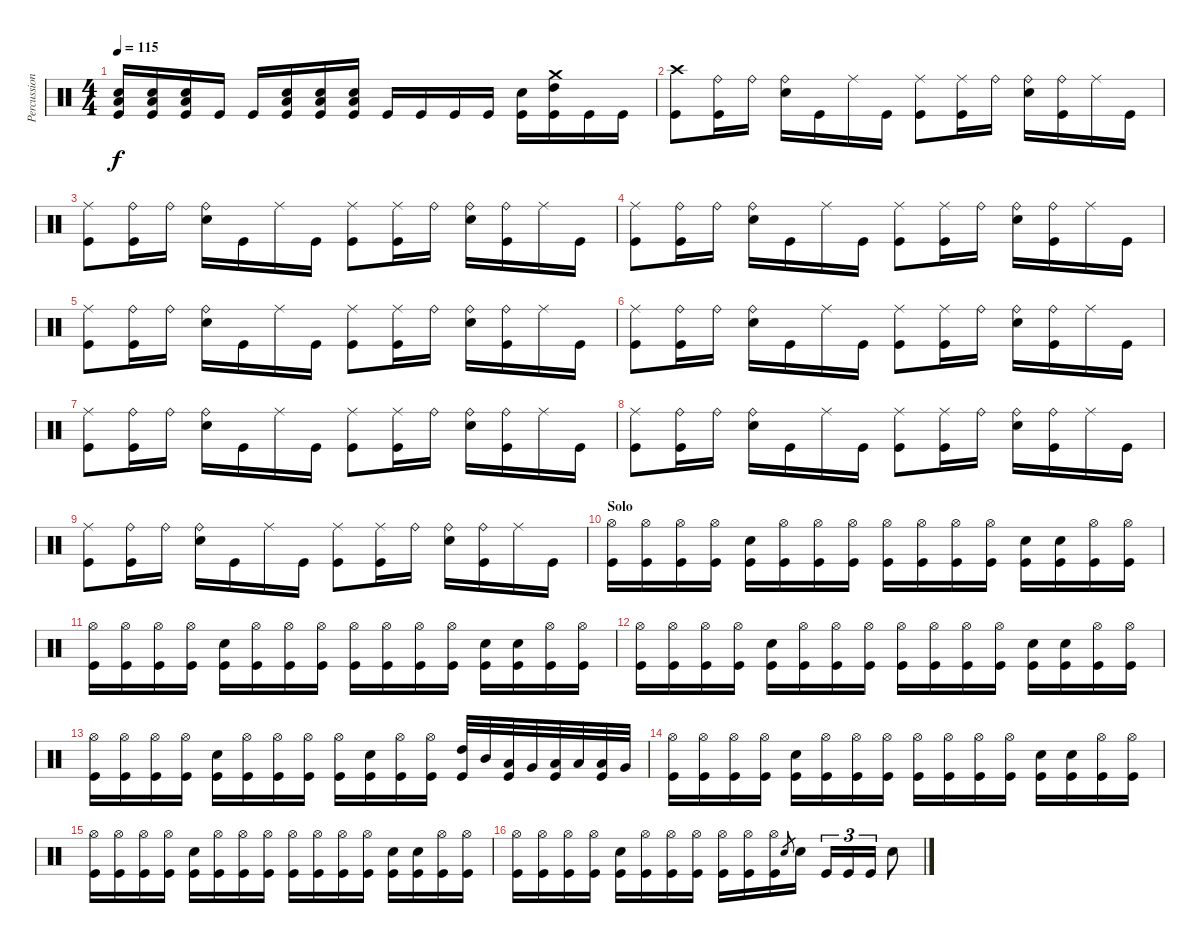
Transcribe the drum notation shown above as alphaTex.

\track ("Percussion" "Percussion") {instrument percussion}
\staff {score}
\articulation defaults
\ts (4 4)
\tempo 115
\clef neutral
\ks c
("Electric Snare (hit)" "Low Floor Tom (hit)" "Kick (hit)").16{dy f} ("Electric Snare (hit)" "Low Floor Tom (hit)" "Kick (hit)").16 ("Electric Snare (hit)" "Low Floor Tom (hit)" "Kick (hit)").16 "Kick (hit)".16 "Kick (hit)".16 ("Electric Snare (hit)" "Low Floor Tom (hit)" "Kick (hit)").16 ("Electric Snare (hit)" "Low Floor Tom (hit)" "Kick (hit)").16 ("Electric Snare (hit)" "Low Floor Tom (hit)" "Kick (hit)").16 "Kick (hit)".16 "Kick (hit)".16 "Kick (hit)".16 "Kick (hit)".16 ("Electric Snare (hit)" "Kick (hit)").16 ("High Tom (hit)" "Crash medium (hit)" "Kick (hit)").16 "Kick (hit)".16 "Kick (hit)".16 |
("Crash high (hit)" "Kick (hit)").8 ("Ride (bell)" "Kick (hit)").16 "Ride (bell)".16 ("Ride (bell)" "Electric Snare (hit)").16 "Kick (hit)".16 "Ride (middle)".16 "Kick (hit)".16 ("Ride (middle)" "Kick (hit)").8 ("Ride (middle)" "Kick (hit)").16 "Ride (bell)".16 ("Ride (bell)" "Electric Snare (hit)").16 ("Ride (bell)" "Kick (hit)").16 "Ride (middle)".16 "Kick (hit)".16 |
("Ride (middle)" "Kick (hit)").8 ("Ride (bell)" "Kick (hit)").16 "Ride (bell)".16 ("Ride (bell)" "Electric Snare (hit)").16 "Kick (hit)".16 "Ride (middle)".16 "Kick (hit)".16 ("Ride (middle)" "Kick (hit)").8 ("Ride (middle)" "Kick (hit)").16 "Ride (bell)".16 ("Ride (bell)" "Electric Snare (hit)").16 ("Ride (bell)" "Kick (hit)").16 "Ride (middle)".16 "Kick (hit)".16 |
("Ride (middle)" "Kick (hit)").8 ("Ride (bell)" "Kick (hit)").16 "Ride (bell)".16 ("Ride (bell)" "Electric Snare (hit)").16 "Kick (hit)".16 "Ride (middle)".16 "Kick (hit)".16 ("Ride (middle)" "Kick (hit)").8 ("Ride (middle)" "Kick (hit)").16 "Ride (bell)".16 ("Ride (bell)" "Electric Snare (hit)").16 ("Ride (bell)" "Kick (hit)").16 "Ride (middle)".16 "Kick (hit)".16 |
("Ride (middle)" "Kick (hit)").8 ("Ride (bell)" "Kick (hit)").16 "Ride (bell)".16 ("Ride (bell)" "Electric Snare (hit)").16 "Kick (hit)".16 "Ride (middle)".16 "Kick (hit)".16 ("Ride (middle)" "Kick (hit)").8 ("Ride (middle)" "Kick (hit)").16 "Ride (bell)".16 ("Ride (bell)" "Electric Snare (hit)").16 ("Ride (bell)" "Kick (hit)").16 "Ride (middle)".16 "Kick (hit)".16 |
("Ride (middle)" "Kick (hit)").8 ("Ride (bell)" "Kick (hit)").16 "Ride (bell)".16 ("Ride (bell)" "Electric Snare (hit)").16 "Kick (hit)".16 "Ride (middle)".16 "Kick (hit)".16 ("Ride (middle)" "Kick (hit)").8 ("Ride (middle)" "Kick (hit)").16 "Ride (bell)".16 ("Ride (bell)" "Electric Snare (hit)").16 ("Ride (bell)" "Kick (hit)").16 "Ride (middle)".16 "Kick (hit)".16 |
("Ride (middle)" "Kick (hit)").8 ("Ride (bell)" "Kick (hit)").16 "Ride (bell)".16 ("Ride (bell)" "Electric Snare (hit)").16 "Kick (hit)".16 "Ride (middle)".16 "Kick (hit)".16 ("Ride (middle)" "Kick (hit)").8 ("Ride (middle)" "Kick (hit)").16 "Ride (bell)".16 ("Ride (bell)" "Electric Snare (hit)").16 ("Ride (bell)" "Kick (hit)").16 "Ride (middle)".16 "Kick (hit)".16 |
("Ride (middle)" "Kick (hit)").8 ("Ride (bell)" "Kick (hit)").16 "Ride (bell)".16 ("Ride (bell)" "Electric Snare (hit)").16 "Kick (hit)".16 "Ride (middle)".16 "Kick (hit)".16 ("Ride (middle)" "Kick (hit)").8 ("Ride (middle)" "Kick (hit)").16 "Ride (bell)".16 ("Ride (bell)" "Electric Snare (hit)").16 ("Ride (bell)" "Kick (hit)").16 "Ride (middle)".16 "Kick (hit)".16 |
("Ride (middle)" "Kick (hit)").8 ("Ride (bell)" "Kick (hit)").16 "Ride (bell)".16 ("Ride (bell)" "Electric Snare (hit)").16 "Kick (hit)".16 "Ride (middle)".16 "Kick (hit)".16 ("Ride (middle)" "Kick (hit)").8 ("Ride (middle)" "Kick (hit)").16 "Ride (bell)".16 ("Ride (bell)" "Electric Snare (hit)").16 ("Ride (bell)" "Kick (hit)").16 "Ride (middle)".16 "Kick (hit)".16 |
\section ("" "Solo")
("Hi-Hat (open)" "Kick (hit)").16 ("Hi-Hat (open)" "Kick (hit)").16 ("Hi-Hat (open)" "Kick (hit)").16 ("Hi-Hat (open)" "Kick (hit)").16 ("Electric Snare (hit)" "Kick (hit)").16 ("Hi-Hat (open)" "Kick (hit)").16 ("Hi-Hat (open)" "Kick (hit)").16 ("Hi-Hat (open)" "Kick (hit)").16 ("Hi-Hat (open)" "Kick (hit)").16 ("Hi-Hat (open)" "Kick (hit)").16 ("Hi-Hat (open)" "Kick (hit)").16 ("Hi-Hat (open)" "Kick (hit)").16 ("Electric Snare (hit)" "Kick (hit)").16 ("Electric Snare (hit)" "Kick (hit)").16 ("Hi-Hat (open)" "Kick (hit)").16 ("Hi-Hat (open)" "Kick (hit)").16 |
("Hi-Hat (open)" "Kick (hit)").16 ("Hi-Hat (open)" "Kick (hit)").16 ("Hi-Hat (open)" "Kick (hit)").16 ("Hi-Hat (open)" "Kick (hit)").16 ("Electric Snare (hit)" "Kick (hit)").16 ("Hi-Hat (open)" "Kick (hit)").16 ("Hi-Hat (open)" "Kick (hit)").16 ("Hi-Hat (open)" "Kick (hit)").16 ("Hi-Hat (open)" "Kick (hit)").16 ("Hi-Hat (open)" "Kick (hit)").16 ("Hi-Hat (open)" "Kick (hit)").16 ("Hi-Hat (open)" "Kick (hit)").16 ("Electric Snare (hit)" "Kick (hit)").16 ("Electric Snare (hit)" "Kick (hit)").16 ("Hi-Hat (open)" "Kick (hit)").16 ("Hi-Hat (open)" "Kick (hit)").16 |
("Hi-Hat (open)" "Kick (hit)").16 ("Hi-Hat (open)" "Kick (hit)").16 ("Hi-Hat (open)" "Kick (hit)").16 ("Hi-Hat (open)" "Kick (hit)").16 ("Electric Snare (hit)" "Kick (hit)").16 ("Hi-Hat (open)" "Kick (hit)").16 ("Hi-Hat (open)" "Kick (hit)").16 ("Hi-Hat (open)" "Kick (hit)").16 ("Hi-Hat (open)" "Kick (hit)").16 ("Hi-Hat (open)" "Kick (hit)").16 ("Hi-Hat (open)" "Kick (hit)").16 ("Hi-Hat (open)" "Kick (hit)").16 ("Electric Snare (hit)" "Kick (hit)").16 ("Electric Snare (hit)" "Kick (hit)").16 ("Hi-Hat (open)" "Kick (hit)").16 ("Hi-Hat (open)" "Kick (hit)").16 |
("Hi-Hat (open)" "Kick (hit)").16 ("Hi-Hat (open)" "Kick (hit)").16 ("Hi-Hat (open)" "Kick (hit)").16 ("Hi-Hat (open)" "Kick (hit)").16 ("Electric Snare (hit)" "Kick (hit)").16 ("Hi-Hat (open)" "Kick (hit)").16 ("Hi-Hat (open)" "Kick (hit)").16 ("Hi-Hat (open)" "Kick (hit)").16 ("Hi-Hat (open)" "Kick (hit)").16 ("Electric Snare (hit)" "Kick (hit)").16 ("Hi-Hat (open)" "Kick (hit)").16 ("Hi-Hat (open)" "Kick (hit)").16 ("High Tom (hit)" "Kick (hit)").32 "Mid Tom (hit)".32 ("Low Tom (hit)" "Kick (hit)").32 "Very Low Tom (hit)".32 ("Low Tom (hit)" "Kick (hit)").32 "Low Floor Tom (hit)".32 ("Low Tom (hit)" "Kick (hit)").32 "Very Low Tom (hit)".32 |
("Hi-Hat (open)" "Kick (hit)").16 ("Hi-Hat (open)" "Kick (hit)").16 ("Hi-Hat (open)" "Kick (hit)").16 ("Hi-Hat (open)" "Kick (hit)").16 ("Electric Snare (hit)" "Kick (hit)").16 ("Hi-Hat (open)" "Kick (hit)").16 ("Hi-Hat (open)" "Kick (hit)").16 ("Hi-Hat (open)" "Kick (hit)").16 ("Hi-Hat (open)" "Kick (hit)").16 ("Hi-Hat (open)" "Kick (hit)").16 ("Hi-Hat (open)" "Kick (hit)").16 ("Hi-Hat (open)" "Kick (hit)").16 ("Electric Snare (hit)" "Kick (hit)").16 ("Electric Snare (hit)" "Kick (hit)").16 ("Hi-Hat (open)" "Kick (hit)").16 ("Hi-Hat (open)" "Kick (hit)").16 |
("Hi-Hat (open)" "Kick (hit)").16 ("Hi-Hat (open)" "Kick (hit)").16 ("Hi-Hat (open)" "Kick (hit)").16 ("Hi-Hat (open)" "Kick (hit)").16 ("Electric Snare (hit)" "Kick (hit)").16 ("Hi-Hat (open)" "Kick (hit)").16 ("Hi-Hat (open)" "Kick (hit)").16 ("Hi-Hat (open)" "Kick (hit)").16 ("Hi-Hat (open)" "Kick (hit)").16 ("Hi-Hat (open)" "Kick (hit)").16 ("Hi-Hat (open)" "Kick (hit)").16 ("Hi-Hat (open)" "Kick (hit)").16 ("Electric Snare (hit)" "Kick (hit)").16 ("Electric Snare (hit)" "Kick (hit)").16 ("Hi-Hat (open)" "Kick (hit)").16 ("Hi-Hat (open)" "Kick (hit)").16 |
("Hi-Hat (open)" "Kick (hit)").16 ("Hi-Hat (open)" "Kick (hit)").16 ("Hi-Hat (open)" "Kick (hit)").16 ("Hi-Hat (open)" "Kick (hit)").16 ("Electric Snare (hit)" "Kick (hit)").16 ("Hi-Hat (open)" "Kick (hit)").16 ("Hi-Hat (open)" "Kick (hit)").16 ("Hi-Hat (open)" "Kick (hit)").16 ("Hi-Hat (open)" "Kick (hit)").16 ("Hi-Hat (open)" "Kick (hit)").16 ("Hi-Hat (open)" "Kick (hit)").16 "Electric Snare (hit)".8{gr} "Electric Snare (hit)".16 "Kick (hit)".16{tu (3 2)} "Kick (hit)".16{tu (3 2)} "Kick (hit)".16{tu (3 2)} "Electric Snare (hit)".8
